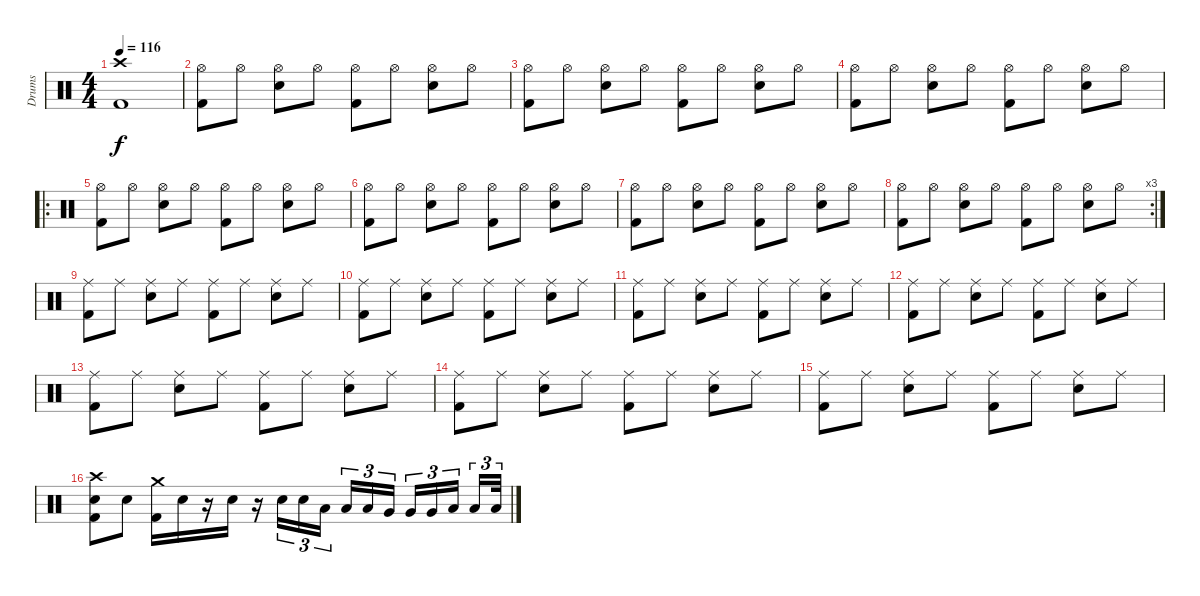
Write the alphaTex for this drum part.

\track ("Drums" "Drums") {instrument percussion}
\staff {score}
\articulation defaults
\ts (4 4)
\tempo 116
\clef neutral
\ks c
("Crash high (hit)" "Kick (hit) 2").1{dy f} |
("Hi-Hat (open)" "Kick (hit) 2").8 "Hi-Hat (open)".8 ("Hi-Hat (open)" "Electric Snare (hit)").8 "Hi-Hat (open)".8 ("Hi-Hat (open)" "Kick (hit) 2").8 "Hi-Hat (open)".8 ("Hi-Hat (open)" "Electric Snare (hit)").8 "Hi-Hat (open)".8 |
("Hi-Hat (open)" "Kick (hit) 2").8 "Hi-Hat (open)".8 ("Hi-Hat (open)" "Electric Snare (hit)").8 "Hi-Hat (open)".8 ("Hi-Hat (open)" "Kick (hit) 2").8 "Hi-Hat (open)".8 ("Hi-Hat (open)" "Electric Snare (hit)").8 "Hi-Hat (open)".8 |
("Hi-Hat (open)" "Kick (hit) 2").8 "Hi-Hat (open)".8 ("Hi-Hat (open)" "Electric Snare (hit)").8 "Hi-Hat (open)".8 ("Hi-Hat (open)" "Kick (hit) 2").8 "Hi-Hat (open)".8 ("Hi-Hat (open)" "Electric Snare (hit)").8 "Hi-Hat (open)".8 |
\ro
("Hi-Hat (open)" "Kick (hit) 2").8 "Hi-Hat (open)".8 ("Hi-Hat (open)" "Electric Snare (hit)").8 "Hi-Hat (open)".8 ("Hi-Hat (open)" "Kick (hit) 2").8 "Hi-Hat (open)".8 ("Hi-Hat (open)" "Electric Snare (hit)").8 "Hi-Hat (open)".8 |
("Hi-Hat (open)" "Kick (hit) 2").8 "Hi-Hat (open)".8 ("Hi-Hat (open)" "Electric Snare (hit)").8 "Hi-Hat (open)".8 ("Hi-Hat (open)" "Kick (hit) 2").8 "Hi-Hat (open)".8 ("Hi-Hat (open)" "Electric Snare (hit)").8 "Hi-Hat (open)".8 |
("Hi-Hat (open)" "Kick (hit) 2").8 "Hi-Hat (open)".8 ("Hi-Hat (open)" "Electric Snare (hit)").8 "Hi-Hat (open)".8 ("Hi-Hat (open)" "Kick (hit) 2").8 "Hi-Hat (open)".8 ("Hi-Hat (open)" "Electric Snare (hit)").8 "Hi-Hat (open)".8 |
\rc 3
("Hi-Hat (open)" "Kick (hit) 2").8 "Hi-Hat (open)".8 ("Hi-Hat (open)" "Electric Snare (hit)").8 "Hi-Hat (open)".8 ("Hi-Hat (open)" "Kick (hit) 2").8 "Hi-Hat (open)".8 ("Hi-Hat (open)" "Electric Snare (hit)").8 "Hi-Hat (open)".8 |
("Ride (middle)" "Kick (hit) 2").8 "Ride (middle)".8 ("Ride (middle)" "Electric Snare (hit)").8 "Ride (middle)".8 ("Ride (middle)" "Kick (hit) 2").8 "Ride (middle)".8 ("Ride (middle)" "Electric Snare (hit)").8 "Ride (middle)".8 |
("Ride (middle)" "Kick (hit) 2").8 "Ride (middle)".8 ("Ride (middle)" "Electric Snare (hit)").8 "Ride (middle)".8 ("Ride (middle)" "Kick (hit) 2").8 "Ride (middle)".8 ("Ride (middle)" "Electric Snare (hit)").8 "Ride (middle)".8 |
("Ride (middle)" "Kick (hit) 2").8 "Ride (middle)".8 ("Ride (middle)" "Electric Snare (hit)").8 "Ride (middle)".8 ("Ride (middle)" "Kick (hit) 2").8 "Ride (middle)".8 ("Ride (middle)" "Electric Snare (hit)").8 "Ride (middle)".8 |
("Ride (middle)" "Kick (hit) 2").8 "Ride (middle)".8 ("Ride (middle)" "Electric Snare (hit)").8 "Ride (middle)".8 ("Ride (middle)" "Kick (hit) 2").8 "Ride (middle)".8 ("Ride (middle)" "Electric Snare (hit)").8 "Ride (middle)".8 |
("Ride (middle)" "Kick (hit) 2").8 "Ride (middle)".8 ("Ride (middle)" "Electric Snare (hit)").8 "Ride (middle)".8 ("Ride (middle)" "Kick (hit) 2").8 "Ride (middle)".8 ("Ride (middle)" "Electric Snare (hit)").8 "Ride (middle)".8 |
("Ride (middle)" "Kick (hit) 2").8 "Ride (middle)".8 ("Ride (middle)" "Electric Snare (hit)").8 "Ride (middle)".8 ("Ride (middle)" "Kick (hit) 2").8 "Ride (middle)".8 ("Ride (middle)" "Electric Snare (hit)").8 "Ride (middle)".8 |
("Ride (middle)" "Kick (hit) 2").8 "Ride (middle)".8 ("Ride (middle)" "Electric Snare (hit)").8 "Ride (middle)".8 ("Ride (middle)" "Kick (hit) 2").8 "Ride (middle)".8 ("Ride (middle)" "Electric Snare (hit)").8 "Ride (middle)".8 |
("Crash high (hit)" "Electric Snare (hit)" "Kick (hit) 2").8 "Electric Snare (hit)".8 ("Crash medium (hit)" "Kick (hit) 2").16 "Electric Snare (hit)".16 r.16 "Electric Snare (hit)".16 r.16 "Electric Snare (hit)".16{tu (3 2)} "Electric Snare (hit)".16{tu (3 2)} "Low Tom (hit)".16{tu (3 2)} "Low Tom (hit)".16{tu (3 2)} "Low Tom (hit)".16{tu (3 2)} "Very Low Tom (hit)".16{tu (3 2)} "Very Low Tom (hit)".16{tu (3 2)} "Very Low Tom (hit)".16{tu (3 2)} "Low Floor Tom (hit)".16{tu (3 2)} "Low Floor Tom (hit)".16{tu (3 2)} "Low Floor Tom (hit)".32{tu (3 2)}
